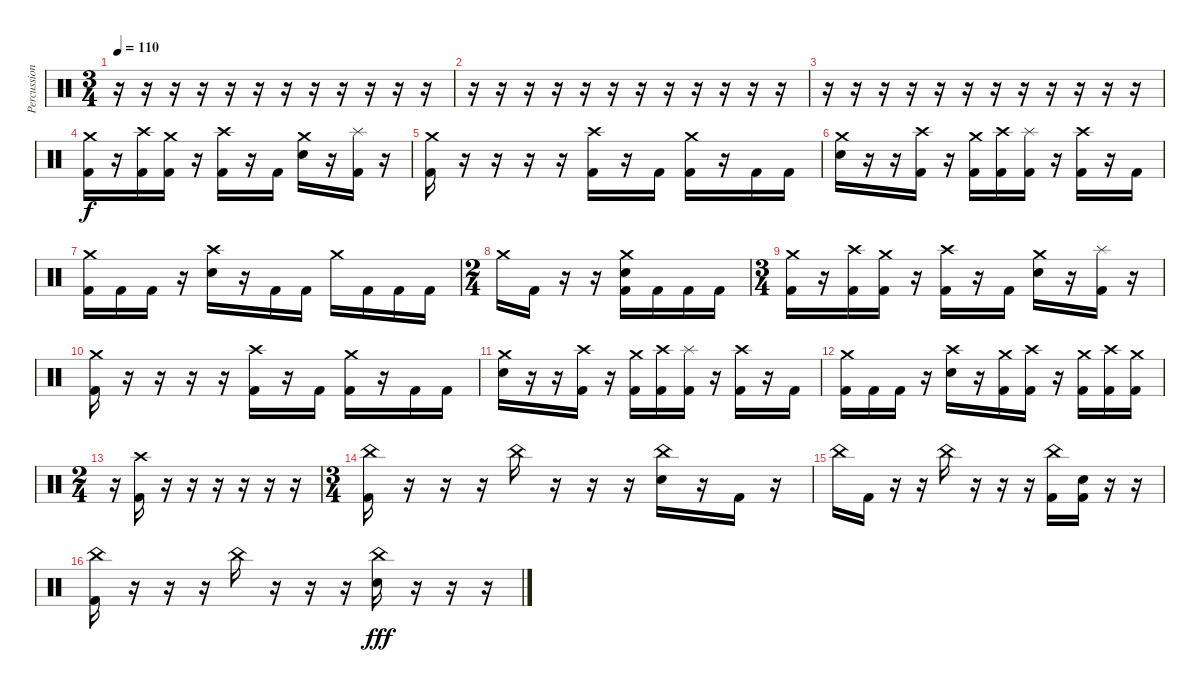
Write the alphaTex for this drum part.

\track ("Percussion" "Percussion") {instrument percussion}
\staff {score}
\articulation defaults
\ts (3 4)
\tempo 110
\clef neutral
\ks c
r.16{dy f} r.16 r.16 r.16 r.16 r.16 r.16 r.16 r.16 r.16 r.16 r.16 |
r.16 r.16 r.16 r.16 r.16 r.16 r.16 r.16 r.16 r.16 r.16 r.16 |
r.16 r.16 r.16 r.16 r.16 r.16 r.16 r.16 r.16 r.16 r.16 r.16 |
("Crash medium (hit)" "Kick (hit) 2").16 r.16 ("Crash high (hit)" "Kick (hit) 2").16 ("Crash medium (hit)" "Kick (hit) 2").16 r.16 ("Crash high (hit)" "Kick (hit) 2").16 r.16 "Kick (hit) 2".16 ("Crash medium (hit)" "Snare (hit) 2").16 r.16 ("Splash (hit)" "Kick (hit) 2").16 r.16 |
("Crash medium (hit)" "Kick (hit) 2").16 r.16 r.16 r.16 r.16 ("Crash high (hit)" "Kick (hit) 2").16 r.16 "Kick (hit) 2".16 ("Crash medium (hit)" "Kick (hit) 2").16 r.16 "Kick (hit) 2".16 "Kick (hit) 2".16 |
("Crash medium (hit)" "Snare (hit) 2").16 r.16 r.16 ("Crash high (hit)" "Kick (hit) 2").16 r.16 ("Crash medium (hit)" "Kick (hit) 2").16 ("Crash high (hit)" "Kick (hit) 2").16 ("Splash (hit)" "Kick (hit) 2").16 r.16 ("Crash high (hit)" "Kick (hit) 2").16 r.16 "Kick (hit) 2".16 |
("Crash medium (hit)" "Kick (hit) 2").16 "Kick (hit) 2".16 "Kick (hit) 2".16 r.16 ("Crash high (hit)" "Snare (hit) 2").16 r.16 "Kick (hit) 2".16 "Kick (hit) 2".16 "Crash medium (hit)".16 "Kick (hit) 2".16 "Kick (hit) 2".16 "Kick (hit) 2".16 |
\ts (2 4)
"Crash medium (hit)".16 "Kick (hit) 2".16 r.16 r.16 ("Crash medium (hit)" "Snare (hit) 2" "Kick (hit) 2").16 "Kick (hit) 2".16 "Kick (hit) 2".16 "Kick (hit) 2".16 |
\ts (3 4)
("Crash medium (hit)" "Kick (hit) 2").16 r.16 ("Crash high (hit)" "Kick (hit) 2").16 ("Crash medium (hit)" "Kick (hit) 2").16 r.16 ("Crash high (hit)" "Kick (hit) 2").16 r.16 "Kick (hit) 2".16 ("Crash medium (hit)" "Snare (hit) 2").16 r.16 ("Splash (hit)" "Kick (hit) 2").16 r.16 |
("Crash medium (hit)" "Kick (hit) 2").16 r.16 r.16 r.16 r.16 ("Crash high (hit)" "Kick (hit) 2").16 r.16 "Kick (hit) 2".16 ("Crash medium (hit)" "Kick (hit) 2").16 r.16 "Kick (hit) 2".16 "Kick (hit) 2".16 |
("Crash medium (hit)" "Snare (hit) 2").16 r.16 r.16 ("Crash high (hit)" "Kick (hit) 2").16 r.16 ("Crash medium (hit)" "Kick (hit) 2").16 ("Crash high (hit)" "Kick (hit) 2").16 ("Splash (hit)" "Kick (hit) 2").16 r.16 ("Crash high (hit)" "Kick (hit) 2").16 r.16 "Kick (hit) 2".16 |
("Crash medium (hit)" "Kick (hit) 2").16 "Kick (hit) 2".16 "Kick (hit) 2".16 r.16 ("Crash high (hit)" "Snare (hit) 2").16 r.16 ("Crash medium (hit)" "Kick (hit) 2").16 ("Crash high (hit)" "Kick (hit) 2").16 r.16 ("Crash medium (hit)" "Kick (hit) 2").16 ("Crash high (hit)" "Kick (hit) 2").16 ("Crash medium (hit)" "Kick (hit) 2").16 |
\ts (2 4)
r.16 ("Crash high (hit)" "Kick (hit) 2").16 r.16 r.16 r.16 r.16 r.16 r.16 |
\ts (3 4)
("China (hit)" "Kick (hit) 2").16 r.16 r.16 r.16 "China (hit)".16 r.16 r.16 r.16 ("China (hit)" "Electric Snare (hit)").16 r.16 "Kick (hit) 2".16 r.16 |
"China (hit)".16 "Kick (hit) 2".16 r.16 r.16 "China (hit)".16 r.16 r.16 r.16 ("China (hit)" "Kick (hit) 2").16 ("Electric Snare (hit)" "Kick (hit) 2").16 r.16 r.16 |
("China (hit)" "Kick (hit) 2").16 r.16 r.16 r.16 "China (hit)".16 r.16 r.16 r.16 ("China (hit)" "Electric Snare (hit)").16{dy fff} r.16 r.16 r.16
